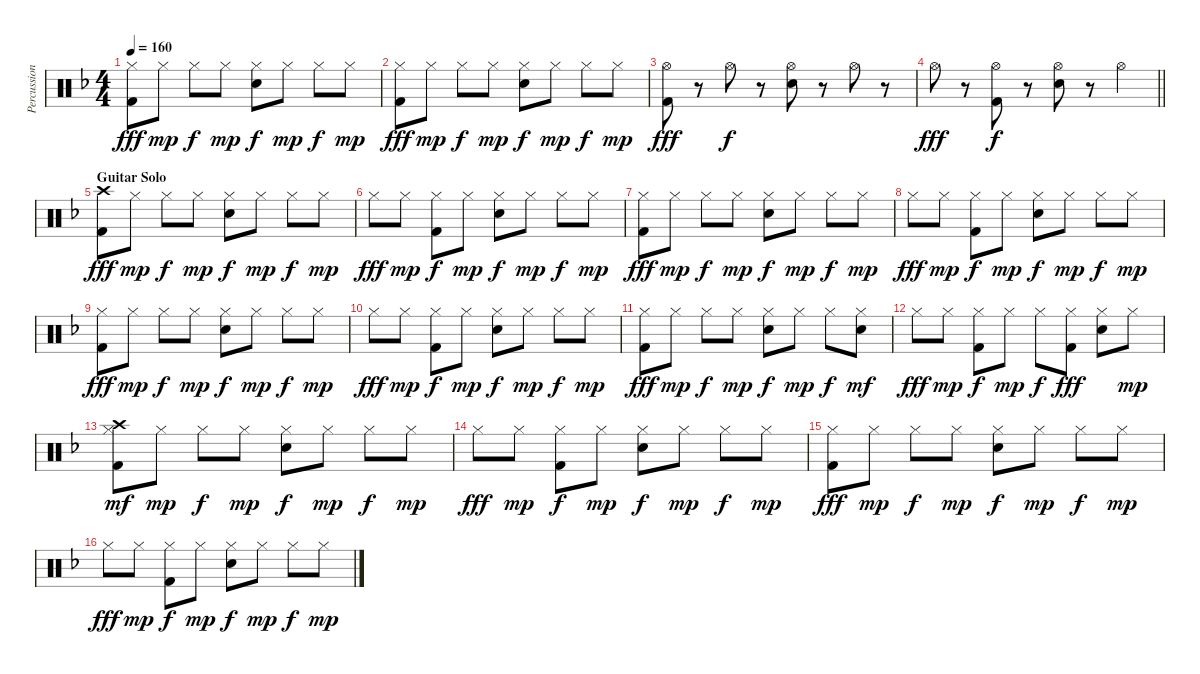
\track ("Percussion" "Percussion") {instrument percussion}
\staff {score}
\articulation defaults
\ts (4 4)
\tempo 160
\clef neutral
\ks f
("Hi-Hat (closed)" "Kick (hit) 2").8{dy fff} "Hi-Hat (closed)".8{dy mp} "Hi-Hat (closed)".8{dy f} "Hi-Hat (closed)".8{dy mp} ("Hi-Hat (closed)" "Electric Snare (hit)").8{dy f} "Hi-Hat (closed)".8{dy mp} "Hi-Hat (closed)".8{dy f} "Hi-Hat (closed)".8{dy mp} |
("Hi-Hat (closed)" "Kick (hit) 2").8{dy fff} "Hi-Hat (closed)".8{dy mp} "Hi-Hat (closed)".8{dy f} "Hi-Hat (closed)".8{dy mp} ("Hi-Hat (closed)" "Electric Snare (hit)").8{dy f} "Hi-Hat (closed)".8{dy mp} "Hi-Hat (closed)".8{dy f} "Hi-Hat (closed)".8{dy mp} |
("Hi-Hat (open)" "Kick (hit) 2").8{dy fff} r.8 "Hi-Hat (open)".8{dy f} r.8 ("Hi-Hat (open)" "Electric Snare (hit)").8 r.8 "Hi-Hat (open)".8 r.8 |
\barLineRight lightlight "Hi-Hat (open)".8{dy fff}
r.8 ("Hi-Hat (open)" "Kick (hit) 2").8{dy f} r.8 ("Hi-Hat (open)" "Electric Snare (hit)").8 r.8 "Hi-Hat (open)".4 |
\section ("" "Guitar Solo")
("Crash high (hit)" "Kick (hit) 2").8{dy fff} "Hi-Hat (closed)".8{dy mp} "Hi-Hat (closed)".8{dy f} "Hi-Hat (closed)".8{dy mp} ("Hi-Hat (closed)" "Electric Snare (hit)").8{dy f} "Hi-Hat (closed)".8{dy mp} "Hi-Hat (closed)".8{dy f} "Hi-Hat (closed)".8{dy mp} |
"Hi-Hat (closed)".8{dy fff} "Hi-Hat (closed)".8{dy mp} ("Hi-Hat (closed)" "Kick (hit) 2").8{dy f} "Hi-Hat (closed)".8{dy mp} ("Hi-Hat (closed)" "Electric Snare (hit)").8{dy f} "Hi-Hat (closed)".8{dy mp} "Hi-Hat (closed)".8{dy f} "Hi-Hat (closed)".8{dy mp} |
("Hi-Hat (closed)" "Kick (hit) 2").8{dy fff} "Hi-Hat (closed)".8{dy mp} "Hi-Hat (closed)".8{dy f} "Hi-Hat (closed)".8{dy mp} ("Hi-Hat (closed)" "Electric Snare (hit)").8{dy f} "Hi-Hat (closed)".8{dy mp} "Hi-Hat (closed)".8{dy f} "Hi-Hat (closed)".8{dy mp} |
"Hi-Hat (closed)".8{dy fff} "Hi-Hat (closed)".8{dy mp} ("Hi-Hat (closed)" "Kick (hit) 2").8{dy f} "Hi-Hat (closed)".8{dy mp} ("Hi-Hat (closed)" "Electric Snare (hit)").8{dy f} "Hi-Hat (closed)".8{dy mp} "Hi-Hat (closed)".8{dy f} "Hi-Hat (closed)".8{dy mp} |
("Hi-Hat (closed)" "Kick (hit) 2").8{dy fff} "Hi-Hat (closed)".8{dy mp} "Hi-Hat (closed)".8{dy f} "Hi-Hat (closed)".8{dy mp} ("Hi-Hat (closed)" "Electric Snare (hit)").8{dy f} "Hi-Hat (closed)".8{dy mp} "Hi-Hat (closed)".8{dy f} "Hi-Hat (closed)".8{dy mp} |
"Hi-Hat (closed)".8{dy fff} "Hi-Hat (closed)".8{dy mp} ("Hi-Hat (closed)" "Kick (hit) 2").8{dy f} "Hi-Hat (closed)".8{dy mp} ("Hi-Hat (closed)" "Electric Snare (hit)").8{dy f} "Hi-Hat (closed)".8{dy mp} "Hi-Hat (closed)".8{dy f} "Hi-Hat (closed)".8{dy mp} |
("Hi-Hat (closed)" "Kick (hit) 2").8{dy fff} "Hi-Hat (closed)".8{dy mp} "Hi-Hat (closed)".8{dy f} "Hi-Hat (closed)".8{dy mp} ("Hi-Hat (closed)" "Electric Snare (hit)").8{dy f} "Hi-Hat (closed)".8{dy mp} "Hi-Hat (closed)".8{dy f} ("Hi-Hat (closed)" "Electric Snare (hit)").8{dy mf} |
"Hi-Hat (closed)".8{dy fff} "Hi-Hat (closed)".8{dy mp} ("Hi-Hat (closed)" "Kick (hit) 2").8{dy f} "Hi-Hat (closed)".8{dy mp} "Hi-Hat (closed)".8{dy f} ("Hi-Hat (closed)" "Kick (hit) 2").8{dy fff} ("Hi-Hat (closed)" "Electric Snare (hit)").8 "Hi-Hat (closed)".8{dy mp} |
("Hi-Hat (closed)" "Crash high (hit)" "Kick (hit) 2").8{dy mf} "Hi-Hat (closed)".8{dy mp} "Hi-Hat (closed)".8{dy f} "Hi-Hat (closed)".8{dy mp} ("Hi-Hat (closed)" "Electric Snare (hit)").8{dy f} "Hi-Hat (closed)".8{dy mp} "Hi-Hat (closed)".8{dy f} "Hi-Hat (closed)".8{dy mp} |
"Hi-Hat (closed)".8{dy fff} "Hi-Hat (closed)".8{dy mp} ("Hi-Hat (closed)" "Kick (hit) 2").8{dy f} "Hi-Hat (closed)".8{dy mp} ("Hi-Hat (closed)" "Electric Snare (hit)").8{dy f} "Hi-Hat (closed)".8{dy mp} "Hi-Hat (closed)".8{dy f} "Hi-Hat (closed)".8{dy mp} |
("Hi-Hat (closed)" "Kick (hit) 2").8{dy fff} "Hi-Hat (closed)".8{dy mp} "Hi-Hat (closed)".8{dy f} "Hi-Hat (closed)".8{dy mp} ("Hi-Hat (closed)" "Electric Snare (hit)").8{dy f} "Hi-Hat (closed)".8{dy mp} "Hi-Hat (closed)".8{dy f} "Hi-Hat (closed)".8{dy mp} |
"Hi-Hat (closed)".8{dy fff} "Hi-Hat (closed)".8{dy mp} ("Hi-Hat (closed)" "Kick (hit) 2").8{dy f} "Hi-Hat (closed)".8{dy mp} ("Hi-Hat (closed)" "Electric Snare (hit)").8{dy f} "Hi-Hat (closed)".8{dy mp} "Hi-Hat (closed)".8{dy f} "Hi-Hat (closed)".8{dy mp}
